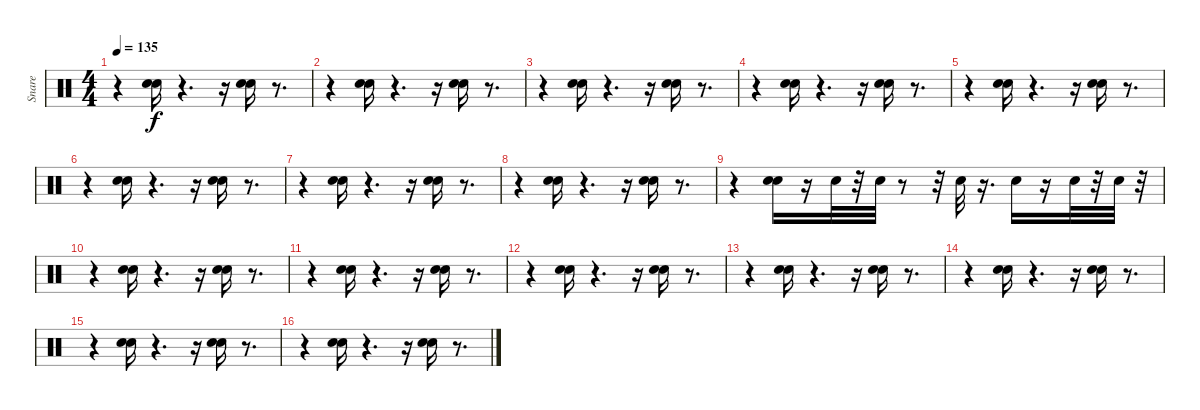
\track ("Snare" "Snare") {instrument percussion}
\staff {score}
\articulation defaults
\ts (4 4)
\tempo 135
\clef neutral
\ks c
r.4{dy f} ("Hand Clap (hit)" "Snare (hit) 2").16 r.4{d} r.16 ("Hand Clap (hit)" "Snare (hit) 2").16 r.8{d} |
r.4 ("Hand Clap (hit)" "Snare (hit) 2").16 r.4{d} r.16 ("Hand Clap (hit)" "Snare (hit) 2").16 r.8{d} |
r.4 ("Snare (hit) 2" "Hand Clap (hit)").16 r.4{d} r.16 ("Snare (hit) 2" "Hand Clap (hit)").16 r.8{d} |
r.4 ("Hand Clap (hit)" "Snare (hit) 2").16 r.4{d} r.16 ("Hand Clap (hit)" "Snare (hit) 2").16 r.8{d} |
r.4 ("Hand Clap (hit)" "Snare (hit) 2").16 r.4{d} r.16 ("Hand Clap (hit)" "Snare (hit) 2").16 r.8{d} |
r.4 ("Hand Clap (hit)" "Snare (hit) 2").16 r.4{d} r.16 ("Hand Clap (hit)" "Snare (hit) 2").16 r.8{d} |
r.4 ("Snare (hit) 2" "Hand Clap (hit)").16 r.4{d} r.16 ("Snare (hit) 2" "Hand Clap (hit)").16 r.8{d} |
r.4 ("Hand Clap (hit)" "Snare (hit) 2").16 r.4{d} r.16 ("Hand Clap (hit)" "Snare (hit) 2").16 r.8{d} |
r.4 ("Snare (hit) 2" "Hand Clap (hit)").16 r.16 "Snare (hit) 2".32 r.32 "Snare (hit) 2".32 r.8 r.32 "Snare (hit) 2".32 r.16{d} "Snare (hit) 2".16 r.16 "Snare (hit) 2".32 r.32 "Snare (hit) 2".32 r.32 |
r.4 ("Hand Clap (hit)" "Snare (hit) 2").16 r.4{d} r.16 ("Hand Clap (hit)" "Snare (hit) 2").16 r.8{d} |
r.4 ("Snare (hit) 2" "Hand Clap (hit)").16 r.4{d} r.16 ("Snare (hit) 2" "Hand Clap (hit)").16 r.8{d} |
r.4 ("Hand Clap (hit)" "Snare (hit) 2").16 r.4{d} r.16 ("Hand Clap (hit)" "Snare (hit) 2").16 r.8{d} |
r.4 ("Hand Clap (hit)" "Snare (hit) 2").16 r.4{d} r.16 ("Hand Clap (hit)" "Snare (hit) 2").16 r.8{d} |
r.4 ("Hand Clap (hit)" "Snare (hit) 2").16 r.4{d} r.16 ("Hand Clap (hit)" "Snare (hit) 2").16 r.8{d} |
r.4 ("Snare (hit) 2" "Hand Clap (hit)").16 r.4{d} r.16 ("Snare (hit) 2" "Hand Clap (hit)").16 r.8{d} |
r.4 ("Hand Clap (hit)" "Snare (hit) 2").16 r.4{d} r.16 ("Hand Clap (hit)" "Snare (hit) 2").16 r.8{d}
